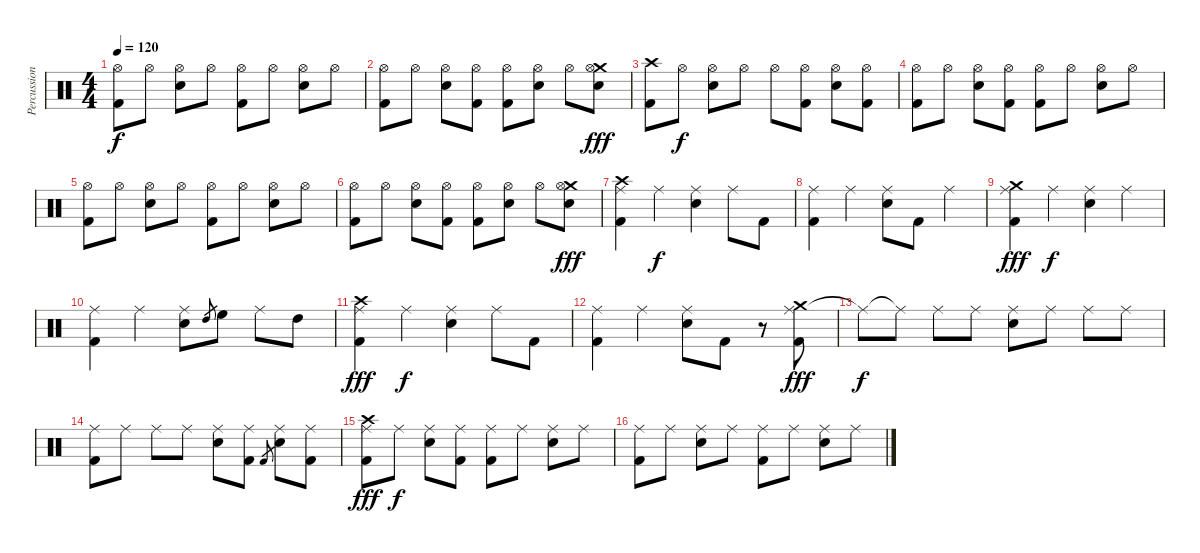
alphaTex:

\track ("Percussion" "Percussion") {instrument percussion}
\staff {score}
\articulation defaults
\ts (4 4)
\tempo 120
\clef neutral
\ks c
("Hi-Hat (open)" "Kick (hit) 2").8{dy f} "Hi-Hat (open)".8 ("Hi-Hat (open)" "Electric Snare (hit)").8 "Hi-Hat (open)".8 ("Hi-Hat (open)" "Kick (hit) 2").8 "Hi-Hat (open)".8 ("Hi-Hat (open)" "Electric Snare (hit)").8 "Hi-Hat (open)".8 |
("Hi-Hat (open)" "Kick (hit) 2").8 "Hi-Hat (open)".8 ("Hi-Hat (open)" "Electric Snare (hit)").8 ("Hi-Hat (open)" "Kick (hit) 2").8 ("Hi-Hat (open)" "Kick (hit) 2").8 ("Hi-Hat (open)" "Electric Snare (hit)").8 "Hi-Hat (open)".8 ("Crash medium (hit)" "Hi-Hat (open)" "Electric Snare (hit)").8{dy fff} |
("Crash high (hit)" "Kick (hit) 2").8 "Hi-Hat (open)".8{dy f} ("Hi-Hat (open)" "Electric Snare (hit)").8 "Hi-Hat (open)".8 "Hi-Hat (open)".8 ("Hi-Hat (open)" "Kick (hit) 2").8 ("Hi-Hat (open)" "Electric Snare (hit)").8 ("Hi-Hat (open)" "Kick (hit) 2").8 |
("Hi-Hat (open)" "Kick (hit) 2").8 "Hi-Hat (open)".8 ("Hi-Hat (open)" "Electric Snare (hit)").8 ("Hi-Hat (open)" "Kick (hit) 2").8 ("Hi-Hat (open)" "Kick (hit) 2").8 "Hi-Hat (open)".8 ("Hi-Hat (open)" "Electric Snare (hit)").8 "Hi-Hat (open)".8 |
("Hi-Hat (open)" "Kick (hit) 2").8 "Hi-Hat (open)".8 ("Hi-Hat (open)" "Electric Snare (hit)").8 "Hi-Hat (open)".8 ("Hi-Hat (open)" "Kick (hit) 2").8 "Hi-Hat (open)".8 ("Hi-Hat (open)" "Electric Snare (hit)").8 "Hi-Hat (open)".8 |
("Hi-Hat (open)" "Kick (hit) 2").8 "Hi-Hat (open)".8 ("Hi-Hat (open)" "Electric Snare (hit)").8 ("Hi-Hat (open)" "Kick (hit) 2").8 ("Hi-Hat (open)" "Kick (hit) 2").8 ("Hi-Hat (open)" "Electric Snare (hit)").8 "Hi-Hat (open)".8 ("Crash medium (hit)" "Hi-Hat (open)" "Electric Snare (hit)").8{dy fff} |
("Ride (middle)" "Crash high (hit)" "Kick (hit) 2").4 "Ride (middle)".4{dy f} ("Ride (middle)" "Electric Snare (hit)").4 "Ride (middle)".8 "Kick (hit) 2".8 |
("Ride (middle)" "Kick (hit) 2").4 "Ride (middle)".4 ("Ride (middle)" "Electric Snare (hit)").8 "Kick (hit) 2".8 "Ride (middle)".4 |
("Ride (middle)" "Crash medium (hit)" "Kick (hit) 2").4{dy fff} "Ride (middle)".4{dy f} ("Ride (middle)" "Electric Snare (hit)").4 "Ride (middle)".4 |
("Ride (middle)" "Kick (hit) 2").4 "Ride (middle)".4 ("Ride (middle)" "Electric Snare (hit)").8 "High Tom (hit)".8{gr} "High Floor Tom (hit)".8 "Ride (middle)".8 "High Tom (hit)".8 |
("Ride (middle)" "Crash high (hit)" "Kick (hit) 2").4{dy fff} "Ride (middle)".4{dy f} ("Ride (middle)" "Electric Snare (hit)").4 "Ride (middle)".8 "Kick (hit) 2".8 |
("Ride (middle)" "Kick (hit) 2").4 "Ride (middle)".4 ("Ride (middle)" "Electric Snare (hit)").8 "Kick (hit) 2".8 r.8 ("Ride (middle)" "Crash medium (hit)" "Kick (hit) 2").8{dy fff} |
"Ride (middle)"{t}.8{dy f} "Ride (middle)"{t}.8 "Ride (middle)".8 "Ride (middle)".8 ("Ride (middle)" "Electric Snare (hit)").8 "Ride (middle)".8 "Ride (middle)".8 "Ride (middle)".8 |
("Ride (middle)" "Kick (hit) 2").8 "Ride (middle)".8 "Ride (middle)".8 "Ride (middle)".8 ("Ride (middle)" "Electric Snare (hit)").8 ("Ride (middle)" "Kick (hit) 2").8 "Kick (hit) 2".8{gr} ("Ride (middle)" "Electric Snare (hit)").8 ("Ride (middle)" "Kick (hit) 2").8 |
("Ride (middle)" "Crash high (hit)" "Kick (hit) 2").8{dy fff} "Ride (middle)".8{dy f} ("Ride (middle)" "Electric Snare (hit)").8 ("Ride (middle)" "Kick (hit) 2").8 ("Ride (middle)" "Kick (hit) 2").8 "Ride (middle)".8 ("Ride (middle)" "Electric Snare (hit)").8 "Ride (middle)".8 |
("Ride (middle)" "Kick (hit) 2").8 "Ride (middle)".8 ("Ride (middle)" "Electric Snare (hit)").8 "Ride (middle)".8 ("Ride (middle)" "Kick (hit) 2").8 "Ride (middle)".8 ("Ride (middle)" "Electric Snare (hit)").8 "Ride (middle)".8
